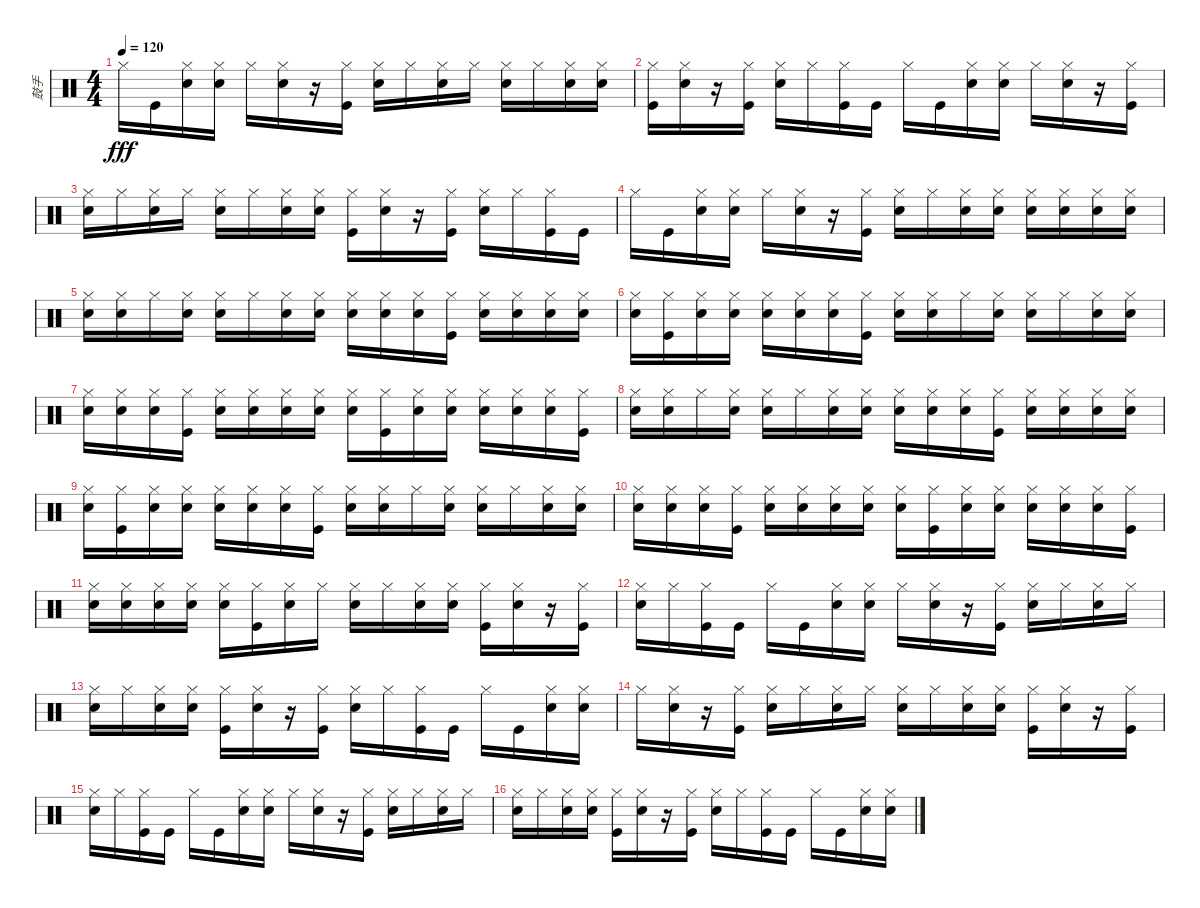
\track ("鼓手" "鼓手") {instrument percussion}
\staff {score}
\articulation defaults
\ts (4 4)
\tempo 120
\clef neutral
\ks c "Hi-Hat (closed)".16{dy fff} "Kick (hit)".16
("Snare (hit) 2" "Hi-Hat (closed)").16 ("Snare (hit) 2" "Hi-Hat (closed)").16 "Hi-Hat (closed)".16 ("Snare (hit) 2" "Hi-Hat (closed)").16 r.16 ("Kick (hit)" "Hi-Hat (closed)").16 ("Snare (hit) 2" "Hi-Hat (closed)").16 "Hi-Hat (closed)".16 ("Snare (hit) 2" "Hi-Hat (closed)").16 "Hi-Hat (closed)".16 ("Snare (hit) 2" "Hi-Hat (closed)").16 "Hi-Hat (closed)".16 ("Snare (hit) 2" "Hi-Hat (closed)").16 ("Snare (hit) 2" "Hi-Hat (closed)").16 |
("Kick (hit)" "Hi-Hat (closed)").16 ("Snare (hit) 2" "Hi-Hat (closed)").16 r.16 ("Kick (hit)" "Hi-Hat (closed)").16 ("Snare (hit) 2" "Hi-Hat (closed)").16 "Hi-Hat (closed)".16 ("Kick (hit)" "Hi-Hat (closed)").16 "Kick (hit)".16 "Hi-Hat (closed)".16 "Kick (hit)".16 ("Snare (hit) 2" "Hi-Hat (closed)").16 ("Snare (hit) 2" "Hi-Hat (closed)").16 "Hi-Hat (closed)".16 ("Snare (hit) 2" "Hi-Hat (closed)").16 r.16 ("Kick (hit)" "Hi-Hat (closed)").16 |
("Snare (hit) 2" "Hi-Hat (closed)").16 "Hi-Hat (closed)".16 ("Snare (hit) 2" "Hi-Hat (closed)").16 "Hi-Hat (closed)".16 ("Snare (hit) 2" "Hi-Hat (closed)").16 "Hi-Hat (closed)".16 ("Snare (hit) 2" "Hi-Hat (closed)").16 ("Snare (hit) 2" "Hi-Hat (closed)").16 ("Kick (hit)" "Hi-Hat (closed)").16 ("Snare (hit) 2" "Hi-Hat (closed)").16 r.16 ("Kick (hit)" "Hi-Hat (closed)").16 ("Snare (hit) 2" "Hi-Hat (closed)").16 "Hi-Hat (closed)".16 ("Kick (hit)" "Hi-Hat (closed)").16 "Kick (hit)".16 |
"Hi-Hat (closed)".16 "Kick (hit)".16 ("Snare (hit) 2" "Hi-Hat (closed)").16 ("Snare (hit) 2" "Hi-Hat (closed)").16 "Hi-Hat (closed)".16 ("Snare (hit) 2" "Hi-Hat (closed)").16 r.16 ("Kick (hit)" "Hi-Hat (closed)").16 ("Snare (hit) 2" "Hi-Hat (closed)").16 "Hi-Hat (closed)".16 ("Snare (hit) 2" "Hi-Hat (closed)").16 ("Snare (hit) 2" "Hi-Hat (closed)").16 ("Snare (hit) 2" "Hi-Hat (closed)").16 ("Snare (hit) 2" "Hi-Hat (closed)").16 ("Snare (hit) 2" "Hi-Hat (closed)").16 ("Snare (hit) 2" "Hi-Hat (closed)").16 |
("Snare (hit) 2" "Hi-Hat (closed)").16 ("Snare (hit) 2" "Hi-Hat (closed)").16 "Hi-Hat (closed)".16 ("Snare (hit) 2" "Hi-Hat (closed)").16 ("Snare (hit) 2" "Hi-Hat (closed)").16 "Hi-Hat (closed)".16 ("Snare (hit) 2" "Hi-Hat (closed)").16 ("Snare (hit) 2" "Hi-Hat (closed)").16 ("Snare (hit) 2" "Hi-Hat (closed)").16 ("Snare (hit) 2" "Hi-Hat (closed)").16 ("Snare (hit) 2" "Hi-Hat (closed)").16 ("Kick (hit)" "Hi-Hat (closed)").16 ("Snare (hit) 2" "Hi-Hat (closed)").16 ("Snare (hit) 2" "Hi-Hat (closed)").16 ("Snare (hit) 2" "Hi-Hat (closed)").16 ("Snare (hit) 2" "Hi-Hat (closed)").16 |
("Snare (hit) 2" "Hi-Hat (closed)").16 ("Kick (hit)" "Hi-Hat (closed)").16 ("Snare (hit) 2" "Hi-Hat (closed)").16 ("Snare (hit) 2" "Hi-Hat (closed)").16 ("Snare (hit) 2" "Hi-Hat (closed)").16 ("Snare (hit) 2" "Hi-Hat (closed)").16 ("Snare (hit) 2" "Hi-Hat (closed)").16 ("Kick (hit)" "Hi-Hat (closed)").16 ("Snare (hit) 2" "Hi-Hat (closed)").16 ("Snare (hit) 2" "Hi-Hat (closed)").16 "Hi-Hat (closed)".16 ("Snare (hit) 2" "Hi-Hat (closed)").16 ("Snare (hit) 2" "Hi-Hat (closed)").16 "Hi-Hat (closed)".16 ("Snare (hit) 2" "Hi-Hat (closed)").16 ("Snare (hit) 2" "Hi-Hat (closed)").16 |
("Snare (hit) 2" "Hi-Hat (closed)").16 ("Snare (hit) 2" "Hi-Hat (closed)").16 ("Snare (hit) 2" "Hi-Hat (closed)").16 ("Kick (hit)" "Hi-Hat (closed)").16 ("Snare (hit) 2" "Hi-Hat (closed)").16 ("Snare (hit) 2" "Hi-Hat (closed)").16 ("Snare (hit) 2" "Hi-Hat (closed)").16 ("Snare (hit) 2" "Hi-Hat (closed)").16 ("Snare (hit) 2" "Hi-Hat (closed)").16 ("Kick (hit)" "Hi-Hat (closed)").16 ("Snare (hit) 2" "Hi-Hat (closed)").16 ("Snare (hit) 2" "Hi-Hat (closed)").16 ("Snare (hit) 2" "Hi-Hat (closed)").16 ("Snare (hit) 2" "Hi-Hat (closed)").16 ("Snare (hit) 2" "Hi-Hat (closed)").16 ("Kick (hit)" "Hi-Hat (closed)").16 |
("Snare (hit) 2" "Hi-Hat (closed)").16 ("Snare (hit) 2" "Hi-Hat (closed)").16 "Hi-Hat (closed)".16 ("Snare (hit) 2" "Hi-Hat (closed)").16 ("Snare (hit) 2" "Hi-Hat (closed)").16 "Hi-Hat (closed)".16 ("Snare (hit) 2" "Hi-Hat (closed)").16 ("Snare (hit) 2" "Hi-Hat (closed)").16 ("Snare (hit) 2" "Hi-Hat (closed)").16 ("Snare (hit) 2" "Hi-Hat (closed)").16 ("Snare (hit) 2" "Hi-Hat (closed)").16 ("Kick (hit)" "Hi-Hat (closed)").16 ("Snare (hit) 2" "Hi-Hat (closed)").16 ("Snare (hit) 2" "Hi-Hat (closed)").16 ("Snare (hit) 2" "Hi-Hat (closed)").16 ("Snare (hit) 2" "Hi-Hat (closed)").16 |
("Snare (hit) 2" "Hi-Hat (closed)").16 ("Kick (hit)" "Hi-Hat (closed)").16 ("Snare (hit) 2" "Hi-Hat (closed)").16 ("Snare (hit) 2" "Hi-Hat (closed)").16 ("Snare (hit) 2" "Hi-Hat (closed)").16 ("Snare (hit) 2" "Hi-Hat (closed)").16 ("Snare (hit) 2" "Hi-Hat (closed)").16 ("Kick (hit)" "Hi-Hat (closed)").16 ("Snare (hit) 2" "Hi-Hat (closed)").16 ("Snare (hit) 2" "Hi-Hat (closed)").16 "Hi-Hat (closed)".16 ("Snare (hit) 2" "Hi-Hat (closed)").16 ("Snare (hit) 2" "Hi-Hat (closed)").16 "Hi-Hat (closed)".16 ("Snare (hit) 2" "Hi-Hat (closed)").16 ("Snare (hit) 2" "Hi-Hat (closed)").16 |
("Snare (hit) 2" "Hi-Hat (closed)").16 ("Snare (hit) 2" "Hi-Hat (closed)").16 ("Snare (hit) 2" "Hi-Hat (closed)").16 ("Kick (hit)" "Hi-Hat (closed)").16 ("Snare (hit) 2" "Hi-Hat (closed)").16 ("Snare (hit) 2" "Hi-Hat (closed)").16 ("Snare (hit) 2" "Hi-Hat (closed)").16 ("Snare (hit) 2" "Hi-Hat (closed)").16 ("Snare (hit) 2" "Hi-Hat (closed)").16 ("Kick (hit)" "Hi-Hat (closed)").16 ("Snare (hit) 2" "Hi-Hat (closed)").16 ("Snare (hit) 2" "Hi-Hat (closed)").16 ("Snare (hit) 2" "Hi-Hat (closed)").16 ("Snare (hit) 2" "Hi-Hat (closed)").16 ("Snare (hit) 2" "Hi-Hat (closed)").16 ("Kick (hit)" "Hi-Hat (closed)").16 |
("Snare (hit) 2" "Hi-Hat (closed)").16 ("Snare (hit) 2" "Hi-Hat (closed)").16 ("Snare (hit) 2" "Hi-Hat (closed)").16 ("Snare (hit) 2" "Hi-Hat (closed)").16 ("Snare (hit) 2" "Hi-Hat (closed)").16 ("Kick (hit)" "Hi-Hat (closed)").16 ("Snare (hit) 2" "Hi-Hat (closed)").16 "Hi-Hat (closed)".16 ("Snare (hit) 2" "Hi-Hat (closed)").16 "Hi-Hat (closed)".16 ("Snare (hit) 2" "Hi-Hat (closed)").16 ("Snare (hit) 2" "Hi-Hat (closed)").16 ("Kick (hit)" "Hi-Hat (closed)").16 ("Snare (hit) 2" "Hi-Hat (closed)").16 r.16 ("Kick (hit)" "Hi-Hat (closed)").16 |
("Snare (hit) 2" "Hi-Hat (closed)").16 "Hi-Hat (closed)".16 ("Kick (hit)" "Hi-Hat (closed)").16 "Kick (hit)".16 "Hi-Hat (closed)".16 "Kick (hit)".16 ("Snare (hit) 2" "Hi-Hat (closed)").16 ("Snare (hit) 2" "Hi-Hat (closed)").16 "Hi-Hat (closed)".16 ("Snare (hit) 2" "Hi-Hat (closed)").16 r.16 ("Kick (hit)" "Hi-Hat (closed)").16 ("Snare (hit) 2" "Hi-Hat (closed)").16 "Hi-Hat (closed)".16 ("Snare (hit) 2" "Hi-Hat (closed)").16 "Hi-Hat (closed)".16 |
("Snare (hit) 2" "Hi-Hat (closed)").16 "Hi-Hat (closed)".16 ("Snare (hit) 2" "Hi-Hat (closed)").16 ("Snare (hit) 2" "Hi-Hat (closed)").16 ("Kick (hit)" "Hi-Hat (closed)").16 ("Snare (hit) 2" "Hi-Hat (closed)").16 r.16 ("Kick (hit)" "Hi-Hat (closed)").16 ("Snare (hit) 2" "Hi-Hat (closed)").16 "Hi-Hat (closed)".16 ("Kick (hit)" "Hi-Hat (closed)").16 "Kick (hit)".16 "Hi-Hat (closed)".16 "Kick (hit)".16 ("Snare (hit) 2" "Hi-Hat (closed)").16 ("Snare (hit) 2" "Hi-Hat (closed)").16 |
"Hi-Hat (closed)".16 ("Snare (hit) 2" "Hi-Hat (closed)").16 r.16 ("Kick (hit)" "Hi-Hat (closed)").16 ("Snare (hit) 2" "Hi-Hat (closed)").16 "Hi-Hat (closed)".16 ("Snare (hit) 2" "Hi-Hat (closed)").16 "Hi-Hat (closed)".16 ("Snare (hit) 2" "Hi-Hat (closed)").16 "Hi-Hat (closed)".16 ("Snare (hit) 2" "Hi-Hat (closed)").16 ("Snare (hit) 2" "Hi-Hat (closed)").16 ("Kick (hit)" "Hi-Hat (closed)").16 ("Snare (hit) 2" "Hi-Hat (closed)").16 r.16 ("Kick (hit)" "Hi-Hat (closed)").16 |
("Snare (hit) 2" "Hi-Hat (closed)").16 "Hi-Hat (closed)".16 ("Kick (hit)" "Hi-Hat (closed)").16 "Kick (hit)".16 "Hi-Hat (closed)".16 "Kick (hit)".16 ("Snare (hit) 2" "Hi-Hat (closed)").16 ("Snare (hit) 2" "Hi-Hat (closed)").16 "Hi-Hat (closed)".16 ("Snare (hit) 2" "Hi-Hat (closed)").16 r.16 ("Kick (hit)" "Hi-Hat (closed)").16 ("Snare (hit) 2" "Hi-Hat (closed)").16 "Hi-Hat (closed)".16 ("Snare (hit) 2" "Hi-Hat (closed)").16 "Hi-Hat (closed)".16 |
("Snare (hit) 2" "Hi-Hat (closed)").16 "Hi-Hat (closed)".16 ("Snare (hit) 2" "Hi-Hat (closed)").16 ("Snare (hit) 2" "Hi-Hat (closed)").16 ("Kick (hit)" "Hi-Hat (closed)").16 ("Snare (hit) 2" "Hi-Hat (closed)").16 r.16 ("Kick (hit)" "Hi-Hat (closed)").16 ("Snare (hit) 2" "Hi-Hat (closed)").16 "Hi-Hat (closed)".16 ("Kick (hit)" "Hi-Hat (closed)").16 "Kick (hit)".16 "Hi-Hat (closed)".16 "Kick (hit)".16 ("Snare (hit) 2" "Hi-Hat (closed)").16 ("Snare (hit) 2" "Hi-Hat (closed)").16
